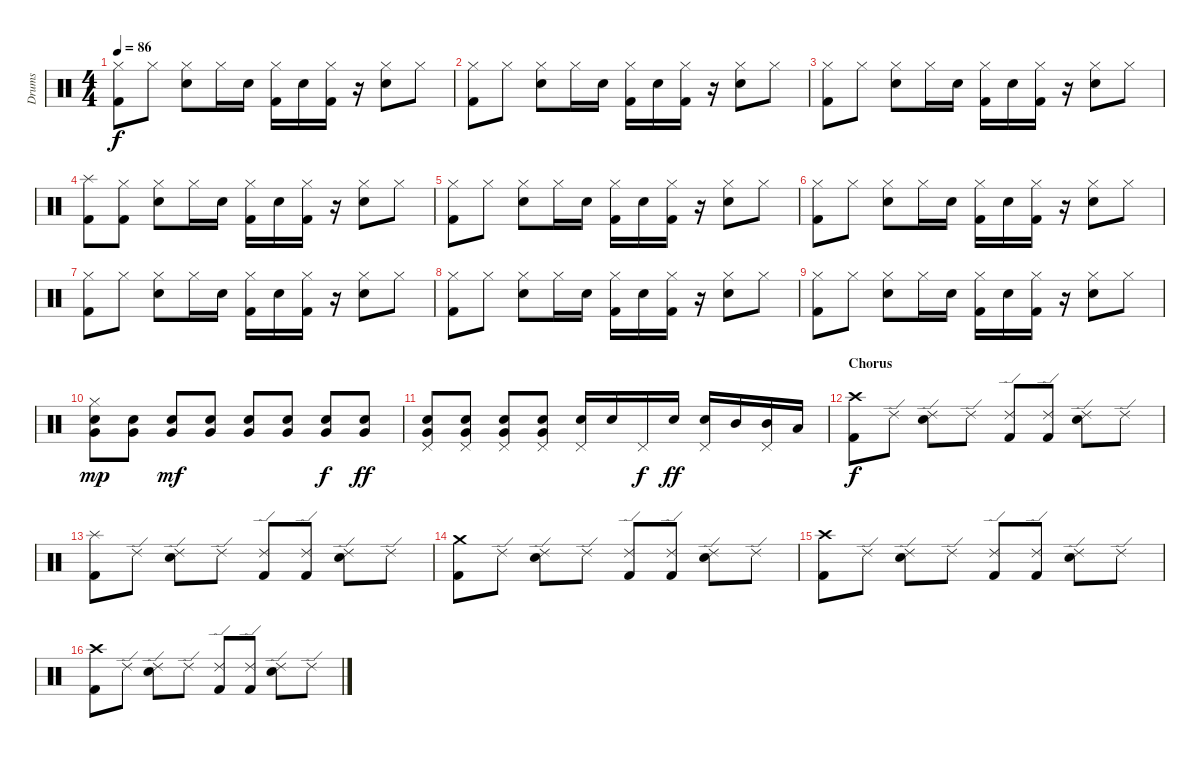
\track ("Drums" "Drums") {instrument percussion}
\staff {score}
\articulation defaults
\ts (4 4)
\tempo 86
\clef neutral
\ks c
("Hi-Hat (closed)" "Kick (hit) 2").8{dy f} "Hi-Hat (closed)".8 ("Hi-Hat (closed)" "Snare (hit) 2").8 "Hi-Hat (closed)".16 "Snare (hit) 2".16 ("Hi-Hat (closed)" "Kick (hit) 2").16 "Snare (hit) 2".16 ("Hi-Hat (closed)" "Kick (hit) 2").16 r.16 ("Hi-Hat (closed)" "Snare (hit) 2").8 "Hi-Hat (closed)".8 |
("Hi-Hat (closed)" "Kick (hit) 2").8 "Hi-Hat (closed)".8 ("Hi-Hat (closed)" "Snare (hit) 2").8 "Hi-Hat (closed)".16 "Snare (hit) 2".16 ("Hi-Hat (closed)" "Kick (hit) 2").16 "Snare (hit) 2".16 ("Hi-Hat (closed)" "Kick (hit) 2").16 r.16 ("Hi-Hat (closed)" "Snare (hit) 2").8 "Hi-Hat (closed)".8 |
("Hi-Hat (closed)" "Kick (hit) 2").8 "Hi-Hat (closed)".8 ("Hi-Hat (closed)" "Snare (hit) 2").8 "Hi-Hat (closed)".16 "Snare (hit) 2".16 ("Hi-Hat (closed)" "Kick (hit) 2").16 "Snare (hit) 2".16 ("Hi-Hat (closed)" "Kick (hit) 2").16 r.16 ("Hi-Hat (closed)" "Snare (hit) 2").8 "Hi-Hat (closed)".8 |
("Splash (hit)" "Kick (hit) 2").8 ("Hi-Hat (closed)" "Kick (hit) 2").8 ("Hi-Hat (closed)" "Snare (hit) 2").8 "Hi-Hat (closed)".16 "Snare (hit) 2".16 ("Hi-Hat (closed)" "Kick (hit) 2").16 "Snare (hit) 2".16 ("Hi-Hat (closed)" "Kick (hit) 2").16 r.16 ("Hi-Hat (closed)" "Snare (hit) 2").8 "Hi-Hat (closed)".8 |
("Hi-Hat (closed)" "Kick (hit) 2").8 "Hi-Hat (closed)".8 ("Hi-Hat (closed)" "Snare (hit) 2").8 "Hi-Hat (closed)".16 "Snare (hit) 2".16 ("Hi-Hat (closed)" "Kick (hit) 2").16 "Snare (hit) 2".16 ("Hi-Hat (closed)" "Kick (hit) 2").16 r.16 ("Hi-Hat (closed)" "Snare (hit) 2").8 "Hi-Hat (closed)".8 |
("Hi-Hat (closed)" "Kick (hit) 2").8 "Hi-Hat (closed)".8 ("Hi-Hat (closed)" "Snare (hit) 2").8 "Hi-Hat (closed)".16 "Snare (hit) 2".16 ("Hi-Hat (closed)" "Kick (hit) 2").16 "Snare (hit) 2".16 ("Hi-Hat (closed)" "Kick (hit) 2").16 r.16 ("Hi-Hat (closed)" "Snare (hit) 2").8 "Hi-Hat (closed)".8 |
("Hi-Hat (closed)" "Kick (hit) 2").8 "Hi-Hat (closed)".8 ("Hi-Hat (closed)" "Snare (hit) 2").8 "Hi-Hat (closed)".16 "Snare (hit) 2".16 ("Hi-Hat (closed)" "Kick (hit) 2").16 "Snare (hit) 2".16 ("Hi-Hat (closed)" "Kick (hit) 2").16 r.16 ("Hi-Hat (closed)" "Snare (hit) 2").8 "Hi-Hat (closed)".8 |
("Hi-Hat (closed)" "Kick (hit) 2").8 "Hi-Hat (closed)".8 ("Hi-Hat (closed)" "Snare (hit) 2").8 "Hi-Hat (closed)".16 "Snare (hit) 2".16 ("Hi-Hat (closed)" "Kick (hit) 2").16 "Snare (hit) 2".16 ("Hi-Hat (closed)" "Kick (hit) 2").16 r.16 ("Hi-Hat (closed)" "Snare (hit) 2").8 "Hi-Hat (closed)".8 |
("Hi-Hat (closed)" "Kick (hit) 2").8 "Hi-Hat (closed)".8 ("Hi-Hat (closed)" "Snare (hit) 2").8 "Hi-Hat (closed)".16 "Snare (hit) 2".16 ("Hi-Hat (closed)" "Kick (hit) 2").16 "Snare (hit) 2".16 ("Hi-Hat (closed)" "Kick (hit) 2").16 r.16 ("Hi-Hat (closed)" "Snare (hit) 2").8 "Hi-Hat (closed)".8 |
("Hi-Hat (closed)" "Snare (hit) 2" "Very Low Tom (hit)").8{dy mp} ("Snare (hit) 2" "Very Low Tom (hit)").8 ("Snare (hit) 2" "Very Low Tom (hit)").8{dy mf} ("Snare (hit) 2" "Very Low Tom (hit)").8 ("Snare (hit) 2" "Very Low Tom (hit)").8 ("Snare (hit) 2" "Very Low Tom (hit)").8 ("Snare (hit) 2" "Very Low Tom (hit)").8{dy f} ("Snare (hit) 2" "Very Low Tom (hit)").8{dy ff} |
("Pedal Hi-Hat (hit)" "Snare (hit) 2" "Very Low Tom (hit)").8 ("Pedal Hi-Hat (hit)" "Snare (hit) 2" "Very Low Tom (hit)").8 ("Pedal Hi-Hat (hit)" "Snare (hit) 2" "Very Low Tom (hit)").8 ("Pedal Hi-Hat (hit)" "Snare (hit) 2" "Very Low Tom (hit)").8 ("Pedal Hi-Hat (hit)" "Snare (hit) 2").16 "Snare (hit) 2".16 "Pedal Hi-Hat (hit)".16{dy f} "Snare (hit) 2".16{dy ff} ("Pedal Hi-Hat (hit)" "Snare (hit) 2").16 "Mid Tom (hit)".16 ("Pedal Hi-Hat (hit)" "Mid Tom (hit)").16 "Low Tom (hit)".16 |
\section ("" "Chorus")
("Crash high (hit)" "Kick (hit) 2").8{dy f} "Ride (edge) 2".8 ("Ride (edge) 2" "Snare (hit) 2").8 "Ride (edge) 2".8 ("Ride (edge) 2" "Kick (hit) 2").8 ("Ride (edge) 2" "Kick (hit) 2").8 ("Ride (edge) 2" "Snare (hit) 2").8 "Ride (edge) 2".8 |
("Splash (hit)" "Kick (hit) 2").8 "Ride (edge) 2".8 ("Ride (edge) 2" "Snare (hit) 2").8 "Ride (edge) 2".8 ("Ride (edge) 2" "Kick (hit) 2").8 ("Ride (edge) 2" "Kick (hit) 2").8 ("Ride (edge) 2" "Snare (hit) 2").8 "Ride (edge) 2".8 |
("Crash medium (hit)" "Kick (hit) 2").8 "Ride (edge) 2".8 ("Ride (edge) 2" "Snare (hit) 2").8 "Ride (edge) 2".8 ("Ride (edge) 2" "Kick (hit) 2").8 ("Ride (edge) 2" "Kick (hit) 2").8 ("Ride (edge) 2" "Snare (hit) 2").8 "Ride (edge) 2".8 |
("Crash high (hit)" "Kick (hit) 2").8 "Ride (edge) 2".8 ("Ride (edge) 2" "Snare (hit) 2").8 "Ride (edge) 2".8 ("Ride (edge) 2" "Kick (hit) 2").8 ("Ride (edge) 2" "Kick (hit) 2").8 ("Ride (edge) 2" "Snare (hit) 2").8 "Ride (edge) 2".8 |
("Crash high (hit)" "Kick (hit) 2").8 "Ride (edge) 2".8 ("Ride (edge) 2" "Snare (hit) 2").8 "Ride (edge) 2".8 ("Ride (edge) 2" "Kick (hit) 2").8 ("Ride (edge) 2" "Kick (hit) 2").8 ("Ride (edge) 2" "Snare (hit) 2").8 "Ride (edge) 2".8
